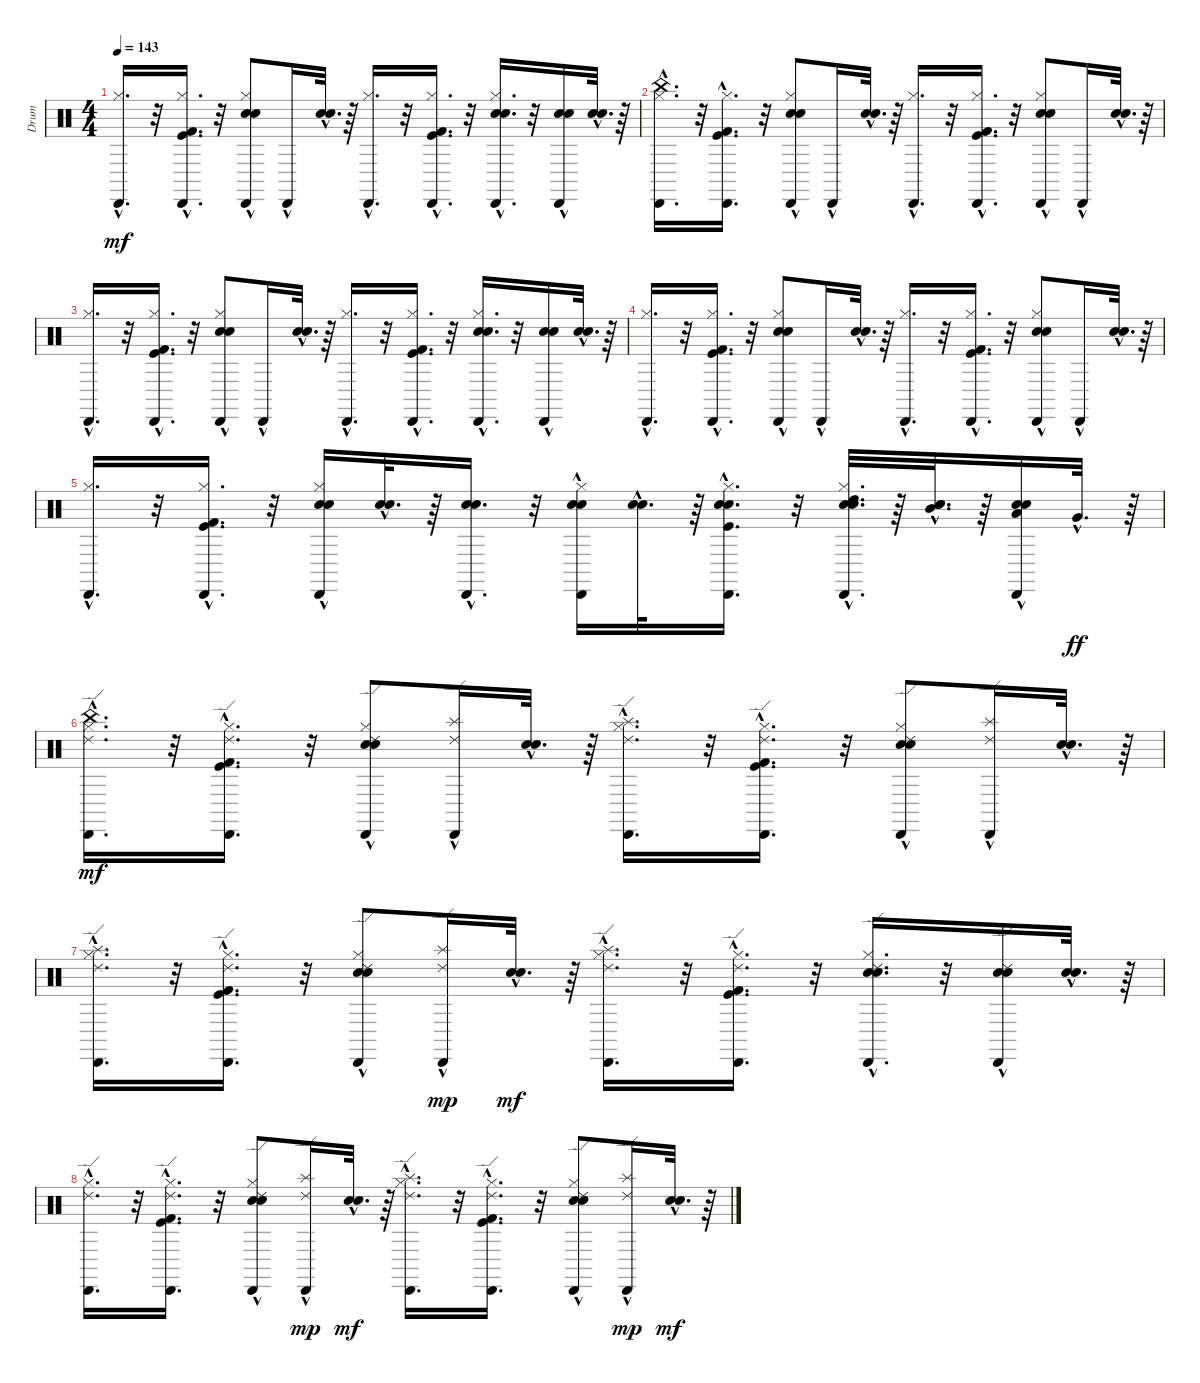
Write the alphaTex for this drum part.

\track ("Drum" "Drum") {instrument percussion}
\staff {score}
\articulation defaults
\ts (4 4)
\tempo 143
\clef neutral
\ks c
("Hi-Hat (closed)"{hac} "Cabasa (hit)"{hac}).16{d dy mf} r.32 ("Hi-Hat (closed)"{hac} "Kick (hit)"{hac} "Cabasa (hit)"{hac} "Kick (hit) 2"{hac}).16{d} r.32 ("Hi-Hat (closed)" "Snare (hit) 2" "Cabasa (hit)"{hac} "Electric Snare (hit)").8 "Cabasa (hit)"{hac}.16 ("Snare (hit) 2"{hac} "Electric Snare (hit)"{hac}).32{d} r.64 ("Hi-Hat (closed)"{hac} "Cabasa (hit)"{hac}).16{d} r.32 ("Hi-Hat (closed)"{hac} "Kick (hit)"{hac} "Cabasa (hit)"{hac} "Kick (hit) 2"{hac}).16{d} r.32 ("Hi-Hat (closed)"{hac} "Snare (hit) 2"{hac} "Cabasa (hit)"{hac} "Electric Snare (hit)"{hac}).16{d} r.32 ("Snare (hit) 2"{hac} "Cabasa (hit)"{hac} "Electric Snare (hit)"{hac}).16 ("Snare (hit) 2"{hac} "Electric Snare (hit)"{hac}).32{d} r.64 |
("China (hit)"{hac} "Cabasa (hit)"{hac} "Hi-Hat (closed)"{hac}).16{d} r.32 ("Kick (hit) 2"{hac} "Cabasa (hit)"{hac} "Kick (hit)"{hac} "Hi-Hat (closed)"{hac}).16{d} r.32 ("Electric Snare (hit)" "Cabasa (hit)"{hac} "Snare (hit) 2" "Hi-Hat (closed)").8 "Cabasa (hit)"{hac}.16 ("Electric Snare (hit)"{hac} "Snare (hit) 2"{hac}).32{d} r.64 ("Cabasa (hit)"{hac} "Hi-Hat (closed)"{hac}).16{d} r.32 ("Kick (hit) 2"{hac} "Cabasa (hit)"{hac} "Kick (hit)"{hac} "Hi-Hat (closed)"{hac}).16{d} r.32 ("Electric Snare (hit)" "Cabasa (hit)"{hac} "Snare (hit) 2" "Hi-Hat (closed)").8 "Cabasa (hit)"{hac}.16 ("Electric Snare (hit)"{hac} "Snare (hit) 2"{hac}).32{d} r.64 |
("Cabasa (hit)"{hac} "Hi-Hat (closed)"{hac}).16{d} r.32 ("Kick (hit) 2"{hac} "Cabasa (hit)"{hac} "Hi-Hat (closed)"{hac} "Kick (hit)"{hac}).16{d} r.32 ("Electric Snare (hit)" "Cabasa (hit)"{hac} "Hi-Hat (closed)" "Snare (hit) 2").8 "Cabasa (hit)"{hac}.16 ("Electric Snare (hit)"{hac} "Snare (hit) 2"{hac}).32{d} r.64 ("Cabasa (hit)"{hac} "Hi-Hat (closed)"{hac}).16{d} r.32 ("Kick (hit) 2"{hac} "Cabasa (hit)"{hac} "Hi-Hat (closed)"{hac} "Kick (hit)"{hac}).16{d} r.32 ("Electric Snare (hit)"{hac} "Cabasa (hit)"{hac} "Hi-Hat (closed)"{hac} "Snare (hit) 2"{hac}).16{d} r.32 ("Electric Snare (hit)"{hac} "Cabasa (hit)"{hac} "Snare (hit) 2"{hac}).16 ("Electric Snare (hit)"{hac} "Snare (hit) 2"{hac}).32{d} r.64 |
("Cabasa (hit)"{hac} "Hi-Hat (closed)"{hac}).16{d} r.32 ("Kick (hit) 2"{hac} "Cabasa (hit)"{hac} "Kick (hit)"{hac} "Hi-Hat (closed)"{hac}).16{d} r.32 ("Electric Snare (hit)" "Cabasa (hit)"{hac} "Snare (hit) 2" "Hi-Hat (closed)").8 "Cabasa (hit)"{hac}.16 ("Electric Snare (hit)"{hac} "Snare (hit) 2"{hac}).32{d} r.64 ("Cabasa (hit)"{hac} "Hi-Hat (closed)"{hac}).16{d} r.32 ("Kick (hit) 2"{hac} "Cabasa (hit)"{hac} "Kick (hit)"{hac} "Hi-Hat (closed)"{hac}).16{d} r.32 ("Electric Snare (hit)" "Cabasa (hit)"{hac} "Snare (hit) 2" "Hi-Hat (closed)").8 "Cabasa (hit)"{hac}.16 ("Electric Snare (hit)"{hac} "Snare (hit) 2"{hac}).32{d} r.64 |
("Cabasa (hit)"{hac} "Hi-Hat (closed)"{hac}).16{d} r.32 ("Cabasa (hit)"{hac} "Hi-Hat (closed)"{hac} "Kick (hit)"{hac} "Kick (hit) 2"{hac}).16{d} r.32 ("Cabasa (hit)"{hac} "Snare (hit) 2"{hac} "Hi-Hat (closed)"{hac} "Electric Snare (hit)"{hac}).16 ("Snare (hit) 2"{hac} "Electric Snare (hit)"{hac}).32{d} r.64 ("Cabasa (hit)"{hac} "Snare (hit) 2"{hac} "Electric Snare (hit)"{hac}).16{d} r.32 ("Cabasa (hit)"{hac} "Snare (hit) 2"{hac} "Hi-Hat (closed)"{hac} "Electric Snare (hit)"{hac}).16 ("Snare (hit) 2"{hac} "Electric Snare (hit)"{hac}).32{d} r.64 ("Cabasa (hit)"{hac} "Snare (hit) 2"{hac} "Hi-Hat (closed)"{hac} "Kick (hit)"{hac} "Electric Snare (hit)"{hac}).16{d} r.32 ("High Tom (hit)"{hac} "Cabasa (hit)"{hac} "Snare (hit) 2"{hac} "Hi-Hat (closed)"{hac} "Electric Snare (hit)"{hac}).32{d} r.64 ("Mid Tom (hit)"{hac} "Snare (hit) 2"{hac} "Electric Snare (hit)"{hac}).32{d} r.64 ("Low Tom (hit)"{hac} "Cabasa (hit)"{hac} "Snare (hit) 2"{hac} "Electric Snare (hit)"{hac}).16 "Very Low Tom (hit)"{hac}.32{d dy ff} r.64 |
("China (hit)"{hac} "Ride (edge) 2"{hac} "Cabasa (hit)"{hac} "Hi-Hat (closed)"{hac}).16{d dy mf} r.32 ("Ride (edge) 2"{hac} "Kick (hit) 2"{hac} "Cabasa (hit)"{hac} "Kick (hit)"{hac} "Hi-Hat (closed)"{hac}).16{d} r.32 ("Ride (edge) 2"{hac} "Electric Snare (hit)" "Cabasa (hit)"{hac} "Snare (hit) 2" "Hi-Hat (closed)").8 ("Splash (hit)"{hac} "Ride (edge) 2"{hac} "Cabasa (hit)"{hac}).16 ("Electric Snare (hit)"{hac} "Snare (hit) 2"{hac}).32{d} r.64 ("Splash (hit)"{hac} "Ride (edge) 2"{hac} "Cabasa (hit)"{hac} "Hi-Hat (closed)"{hac}).16{d} r.32 ("Ride (edge) 2"{hac} "Kick (hit) 2"{hac} "Cabasa (hit)"{hac} "Kick (hit)"{hac} "Hi-Hat (closed)"{hac}).16{d} r.32 ("Ride (edge) 2"{hac} "Electric Snare (hit)" "Cabasa (hit)"{hac} "Snare (hit) 2" "Hi-Hat (closed)").8 ("Splash (hit)"{hac} "Ride (edge) 2"{hac} "Cabasa (hit)"{hac}).16 ("Electric Snare (hit)"{hac} "Snare (hit) 2"{hac}).32{d} r.64 |
("Splash (hit)"{hac} "Cabasa (hit)"{hac} "Ride (edge) 2"{hac} "Hi-Hat (closed)"{hac}).16{d} r.32 ("Cabasa (hit)"{hac} "Ride (edge) 2"{hac} "Kick (hit) 2"{hac} "Hi-Hat (closed)"{hac} "Kick (hit)"{hac}).16{d} r.32 ("Cabasa (hit)"{hac} "Ride (edge) 2"{hac} "Electric Snare (hit)" "Hi-Hat (closed)" "Snare (hit) 2").8 ("Cabasa (hit)"{hac} "Ride (edge) 2"{hac} "Splash (hit)"{hac}).16{dy mp} ("Electric Snare (hit)"{hac} "Snare (hit) 2"{hac}).32{d dy mf} r.64 ("Cabasa (hit)"{hac} "Ride (edge) 2"{hac} "Splash (hit)"{hac} "Hi-Hat (closed)"{hac}).16{d} r.32 ("Cabasa (hit)"{hac} "Ride (edge) 2"{hac} "Kick (hit) 2"{hac} "Hi-Hat (closed)"{hac} "Kick (hit)"{hac}).16{d} r.32 ("Cabasa (hit)"{hac} "Ride (edge) 2"{hac} "Electric Snare (hit)"{hac} "Hi-Hat (closed)"{hac} "Snare (hit) 2"{hac}).16{d} r.32 ("Cabasa (hit)"{hac} "Ride (edge) 2"{hac} "Electric Snare (hit)"{hac} "Snare (hit) 2"{hac}).16 ("Electric Snare (hit)"{hac} "Snare (hit) 2"{hac}).32{d} r.64 |
("Cabasa (hit)"{hac} "Ride (edge) 2"{hac} "Hi-Hat (closed)"{hac}).16{d} r.32 ("Cabasa (hit)"{hac} "Ride (edge) 2"{hac} "Kick (hit) 2"{hac} "Kick (hit)"{hac} "Hi-Hat (closed)"{hac}).16{d} r.32 ("Cabasa (hit)"{hac} "Ride (edge) 2"{hac} "Electric Snare (hit)" "Snare (hit) 2" "Hi-Hat (closed)").8 ("Cabasa (hit)"{hac} "Ride (edge) 2"{hac} "Splash (hit)"{hac}).16{dy mp} ("Electric Snare (hit)"{hac} "Snare (hit) 2"{hac}).32{d dy mf} r.64 ("Cabasa (hit)"{hac} "Ride (edge) 2"{hac} "Splash (hit)"{hac} "Hi-Hat (closed)"{hac}).16{d} r.32 ("Cabasa (hit)"{hac} "Ride (edge) 2"{hac} "Kick (hit) 2"{hac} "Kick (hit)"{hac} "Hi-Hat (closed)"{hac}).16{d} r.32 ("Cabasa (hit)"{hac} "Ride (edge) 2"{hac} "Electric Snare (hit)" "Snare (hit) 2" "Hi-Hat (closed)").8 ("Cabasa (hit)"{hac} "Ride (edge) 2"{hac} "Splash (hit)"{hac}).16{dy mp} ("Electric Snare (hit)"{hac} "Snare (hit) 2"{hac}).32{d dy mf} r.64
